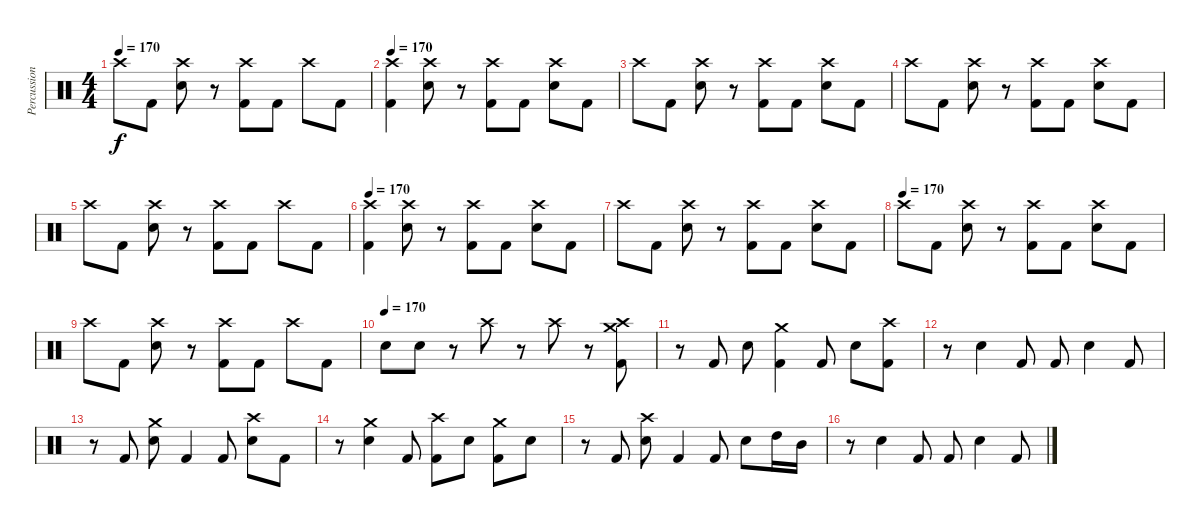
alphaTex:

\track ("Percussion" "Percussion") {instrument percussion}
\staff {score}
\articulation defaults
\ts (4 4)
\tempo 170
\clef neutral
\ks c "Crash high (hit)".8{dy f} "Kick (hit) 2".8
("Crash high (hit)" "Electric Snare (hit)").8 r.8 ("Crash high (hit)" "Kick (hit) 2").8 "Kick (hit) 2".8 "Crash high (hit)".8 "Kick (hit) 2".8 |
\tempo 170
("Crash high (hit)" "Kick (hit) 2").4 ("Crash high (hit)" "Electric Snare (hit)").8 r.8 ("Crash high (hit)" "Kick (hit) 2").8 "Kick (hit) 2".8 ("Crash high (hit)" "Electric Snare (hit)").8 "Kick (hit) 2".8 |
"Crash high (hit)".8 "Kick (hit) 2".8 ("Crash high (hit)" "Electric Snare (hit)").8 r.8 ("Crash high (hit)" "Kick (hit) 2").8 "Kick (hit) 2".8 ("Crash high (hit)" "Electric Snare (hit)").8 "Kick (hit) 2".8 |
"Crash high (hit)".8 "Kick (hit) 2".8 ("Crash high (hit)" "Electric Snare (hit)").8 r.8 ("Crash high (hit)" "Kick (hit) 2").8 "Kick (hit) 2".8 ("Crash high (hit)" "Electric Snare (hit)").8 "Kick (hit) 2".8 |
"Crash high (hit)".8 "Kick (hit) 2".8 ("Crash high (hit)" "Electric Snare (hit)").8 r.8 ("Crash high (hit)" "Kick (hit) 2").8 "Kick (hit) 2".8 "Crash high (hit)".8 "Kick (hit) 2".8 |
\tempo 170
("Crash high (hit)" "Kick (hit) 2").4 ("Crash high (hit)" "Electric Snare (hit)").8 r.8 ("Crash high (hit)" "Kick (hit) 2").8 "Kick (hit) 2".8 ("Crash high (hit)" "Electric Snare (hit)").8 "Kick (hit) 2".8 |
"Crash high (hit)".8 "Kick (hit) 2".8 ("Crash high (hit)" "Electric Snare (hit)").8 r.8 ("Crash high (hit)" "Kick (hit) 2").8 "Kick (hit) 2".8 ("Crash high (hit)" "Electric Snare (hit)").8 "Kick (hit) 2".8 |
\tempo (170)
"Crash high (hit)".8 "Kick (hit) 2".8 ("Crash high (hit)" "Electric Snare (hit)").8 r.8 ("Crash high (hit)" "Kick (hit) 2").8 "Kick (hit) 2".8 ("Crash high (hit)" "Electric Snare (hit)").8 "Kick (hit) 2".8 |
"Crash high (hit)".8 "Kick (hit) 2".8 ("Crash high (hit)" "Electric Snare (hit)").8 r.8 ("Crash high (hit)" "Kick (hit) 2").8 "Kick (hit) 2".8 "Crash high (hit)".8 "Kick (hit) 2".8 |
\tempo (170)
"Electric Snare (hit)".8 "Electric Snare (hit)".8 r.8 "Crash high (hit)".8 r.8 "Crash high (hit)".8 r.8 ("Crash high (hit)" "Crash medium (hit)" "Kick (hit) 2").8 |
r.8 "Kick (hit) 2".8 "Electric Snare (hit)".8 ("Crash medium (hit)" "Kick (hit) 2").4 "Kick (hit) 2".8 "Electric Snare (hit)".8 ("Crash high (hit)" "Kick (hit) 2").8 |
r.8 "Electric Snare (hit)".4 "Kick (hit) 2".8 "Kick (hit) 2".8 "Electric Snare (hit)".4 "Kick (hit) 2".8 |
r.8 "Kick (hit) 2".8 ("Crash medium (hit)" "Electric Snare (hit)").8 "Kick (hit) 2".4 "Kick (hit) 2".8 ("Crash high (hit)" "Electric Snare (hit)").8 "Kick (hit) 2".8 |
r.8 ("Crash medium (hit)" "Electric Snare (hit)").4 "Kick (hit) 2".8 ("Crash high (hit)" "Kick (hit) 2").8 "Electric Snare (hit)".8 ("Crash medium (hit)" "Kick (hit) 2").8 "Electric Snare (hit)".8 |
r.8 "Kick (hit) 2".8 ("Crash high (hit)" "Electric Snare (hit)").8 "Kick (hit) 2".4 "Kick (hit) 2".8 "Electric Snare (hit)".8 "High Tom (hit)".16 "Mid Tom (hit)".16 |
r.8 "Electric Snare (hit)".4 "Kick (hit) 2".8 "Kick (hit) 2".8 "Electric Snare (hit)".4 "Kick (hit) 2".8
